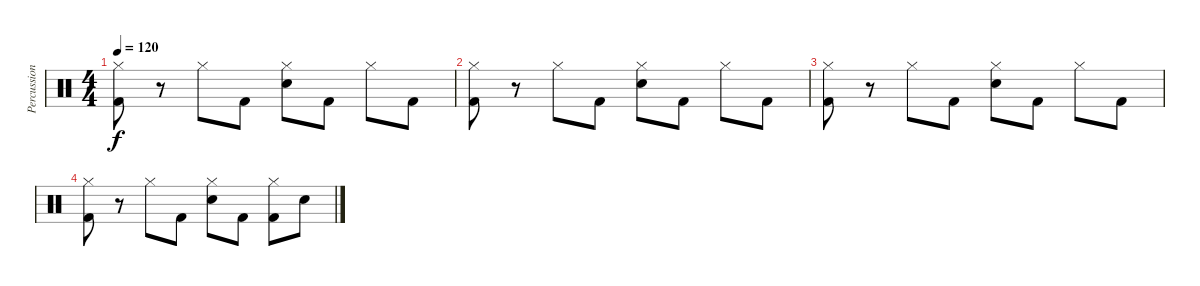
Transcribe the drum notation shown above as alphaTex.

\track ("Percussions" "Percussion") {instrument percussion}
\staff {score}
\articulation defaults
\ts (4 4)
\tempo 120
\clef neutral
\ks c
("Hi-Hat (closed)" "Kick (hit) 2").8{dy f} r.8 "Hi-Hat (closed)".8 "Kick (hit) 2".8 ("Hi-Hat (closed)" "Snare (hit) 2").8 "Kick (hit) 2".8 "Hi-Hat (closed)".8 "Kick (hit) 2".8 |
("Hi-Hat (closed)" "Kick (hit) 2").8 r.8 "Hi-Hat (closed)".8 "Kick (hit) 2".8 ("Hi-Hat (closed)" "Snare (hit) 2").8 "Kick (hit) 2".8 "Hi-Hat (closed)".8 "Kick (hit) 2".8 |
("Hi-Hat (closed)" "Kick (hit) 2").8 r.8 "Hi-Hat (closed)".8 "Kick (hit) 2".8 ("Hi-Hat (closed)" "Snare (hit) 2").8 "Kick (hit) 2".8 "Hi-Hat (closed)".8 "Kick (hit) 2".8 |
("Hi-Hat (closed)" "Kick (hit) 2").8 r.8 "Hi-Hat (closed)".8 "Kick (hit) 2".8 ("Hi-Hat (closed)" "Snare (hit) 2").8 "Kick (hit) 2".8 ("Hi-Hat (closed)" "Kick (hit) 2").8 "Snare (hit) 2".8
